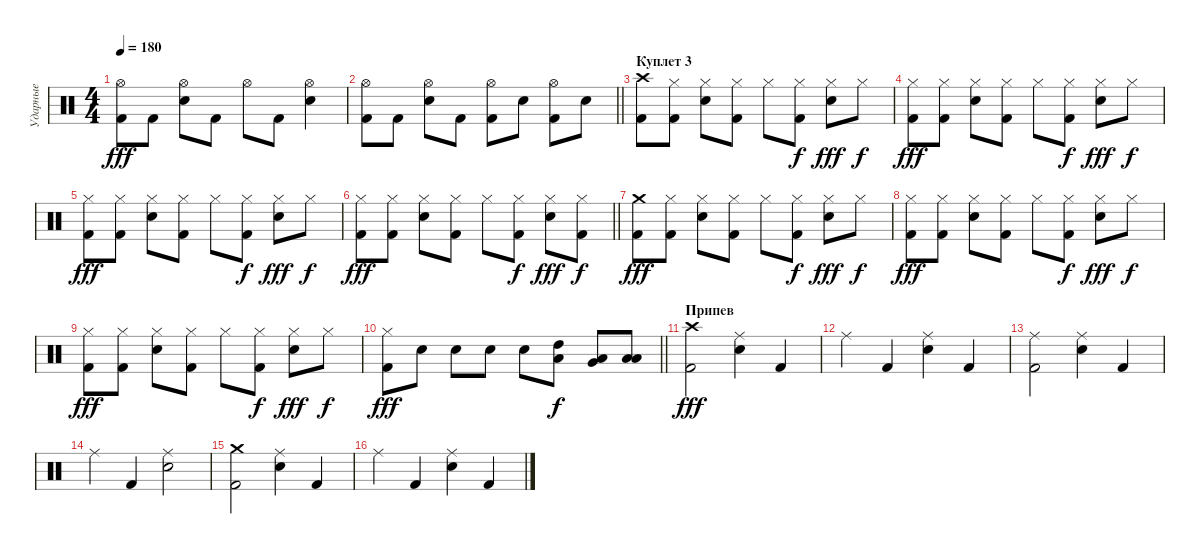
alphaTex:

\track ("Ударные" "Ударные") {instrument percussion}
\staff {score}
\articulation defaults
\ts (4 4)
\tempo 180
\clef neutral
\ks c
("Hi-Hat (open)" "Kick (hit) 2").8{dy fff} "Kick (hit) 2".8 ("Hi-Hat (open)" "Snare (hit) 2").8 "Kick (hit) 2".8 "Hi-Hat (open)".8 "Kick (hit) 2".8 ("Hi-Hat (open)" "Snare (hit) 2").4 |
\barLineRight lightlight
("Hi-Hat (open)" "Kick (hit) 2").8 "Kick (hit) 2".8 ("Hi-Hat (open)" "Snare (hit) 2").8 "Kick (hit) 2".8 ("Hi-Hat (open)" "Kick (hit) 2").8 "Snare (hit) 2".8 ("Hi-Hat (open)" "Kick (hit) 2").8 "Snare (hit) 2".8 |
\section ("" "Куплет 3")
("Crash high (hit)" "Kick (hit) 2").8 ("Hi-Hat (closed)" "Kick (hit) 2").8 ("Hi-Hat (closed)" "Snare (hit) 2").8 ("Hi-Hat (closed)" "Kick (hit) 2").8 "Hi-Hat (closed)".8 ("Hi-Hat (closed)" "Kick (hit) 2").8{dy f} ("Hi-Hat (closed)" "Snare (hit) 2").8{dy fff} "Hi-Hat (closed)".8{dy f} |
("Hi-Hat (closed)" "Kick (hit) 2").8{dy fff} ("Hi-Hat (closed)" "Kick (hit) 2").8 ("Hi-Hat (closed)" "Snare (hit) 2").8 ("Hi-Hat (closed)" "Kick (hit) 2").8 "Hi-Hat (closed)".8 ("Hi-Hat (closed)" "Kick (hit) 2").8{dy f} ("Hi-Hat (closed)" "Snare (hit) 2").8{dy fff} "Hi-Hat (closed)".8{dy f} |
("Hi-Hat (closed)" "Kick (hit) 2").8{dy fff} ("Hi-Hat (closed)" "Kick (hit) 2").8 ("Hi-Hat (closed)" "Snare (hit) 2").8 ("Hi-Hat (closed)" "Kick (hit) 2").8 "Hi-Hat (closed)".8 ("Hi-Hat (closed)" "Kick (hit) 2").8{dy f} ("Hi-Hat (closed)" "Snare (hit) 2").8{dy fff} "Hi-Hat (closed)".8{dy f} |
\barLineRight lightlight
("Hi-Hat (closed)" "Kick (hit) 2").8{dy fff} ("Hi-Hat (closed)" "Kick (hit) 2").8 ("Hi-Hat (closed)" "Snare (hit) 2").8 ("Hi-Hat (closed)" "Kick (hit) 2").8 "Hi-Hat (closed)".8 ("Hi-Hat (closed)" "Kick (hit) 2").8{dy f} ("Hi-Hat (closed)" "Snare (hit) 2").8{dy fff} ("Hi-Hat (closed)" "Kick (hit) 2").8{dy f} |
("Crash medium (hit)" "Kick (hit) 2").8{dy fff} ("Hi-Hat (closed)" "Kick (hit) 2").8 ("Hi-Hat (closed)" "Snare (hit) 2").8 ("Hi-Hat (closed)" "Kick (hit) 2").8 "Hi-Hat (closed)".8 ("Hi-Hat (closed)" "Kick (hit) 2").8{dy f} ("Hi-Hat (closed)" "Snare (hit) 2").8{dy fff} "Hi-Hat (closed)".8{dy f} |
("Hi-Hat (closed)" "Kick (hit) 2").8{dy fff} ("Hi-Hat (closed)" "Kick (hit) 2").8 ("Hi-Hat (closed)" "Snare (hit) 2").8 ("Hi-Hat (closed)" "Kick (hit) 2").8 "Hi-Hat (closed)".8 ("Hi-Hat (closed)" "Kick (hit) 2").8{dy f} ("Hi-Hat (closed)" "Snare (hit) 2").8{dy fff} "Hi-Hat (closed)".8{dy f} |
("Hi-Hat (closed)" "Kick (hit) 2").8{dy fff} ("Hi-Hat (closed)" "Kick (hit) 2").8 ("Hi-Hat (closed)" "Snare (hit) 2").8 ("Hi-Hat (closed)" "Kick (hit) 2").8 "Hi-Hat (closed)".8 ("Hi-Hat (closed)" "Kick (hit) 2").8{dy f} ("Hi-Hat (closed)" "Snare (hit) 2").8{dy fff} "Hi-Hat (closed)".8{dy f} |
\barLineRight lightlight
("Hi-Hat (closed)" "Kick (hit) 2").8{dy fff} "Snare (hit) 2".8 "Snare (hit) 2".8 "Snare (hit) 2".8 "Snare (hit) 2".8 ("High Tom (hit)" "Low Tom (hit)").8{dy f} ("Low Tom (hit)" "Very Low Tom (hit)").8 ("Low Floor Tom (hit)" "Low Tom (hit)").8 |
\section ("" "Припев")
("Crash high (hit)" "Kick (hit) 2").2{dy fff} ("Ride (middle)" "Snare (hit) 2").4 "Kick (hit) 2".4 |
"Ride (middle)".4 "Kick (hit) 2".4 ("Ride (middle)" "Snare (hit) 2").4 "Kick (hit) 2".4 |
("Ride (middle)" "Kick (hit) 2").2 ("Ride (middle)" "Snare (hit) 2").4 "Kick (hit) 2".4 |
"Ride (middle)".4 "Kick (hit) 2".4 ("Ride (middle)" "Snare (hit) 2").2 |
("Crash medium (hit)" "Kick (hit) 2").2 ("Ride (middle)" "Snare (hit) 2").4 "Kick (hit) 2".4 |
"Ride (middle)".4 "Kick (hit) 2".4 ("Ride (middle)" "Snare (hit) 2").4 "Kick (hit) 2".4
